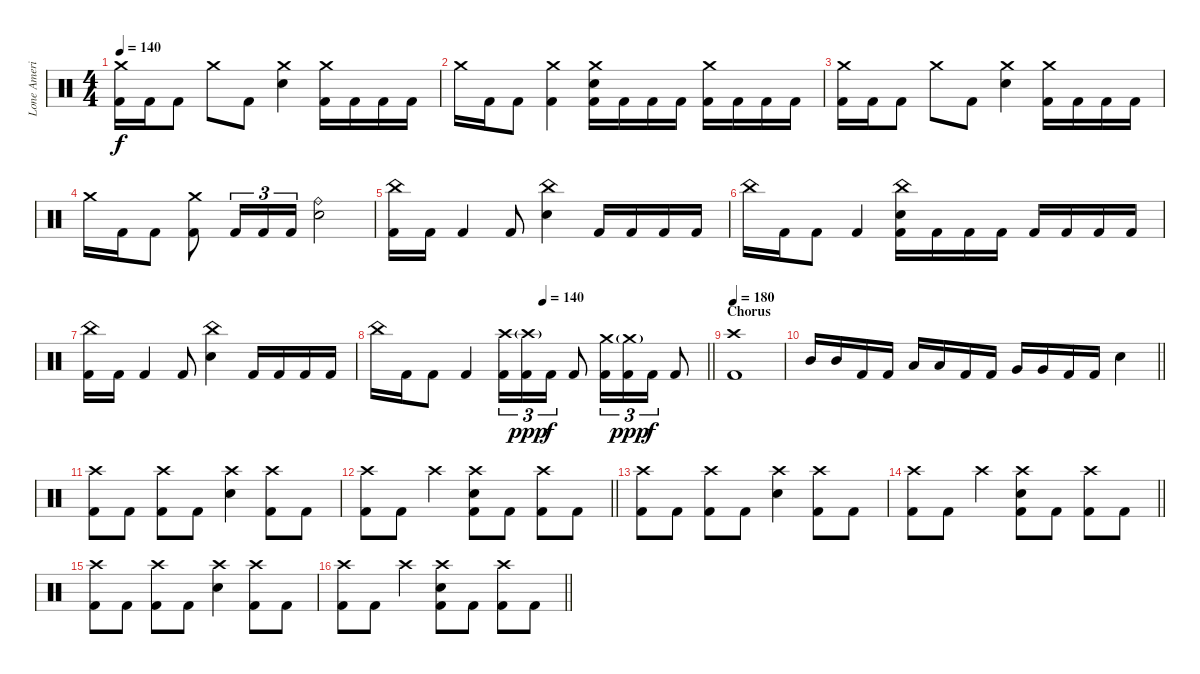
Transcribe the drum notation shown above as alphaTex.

\track ("Lone America" "Lone Ameri") {instrument percussion}
\staff {score}
\articulation defaults
\ts (4 4)
\tempo 140
\clef neutral
\ks c
("Crash medium (hit)" "Kick (hit) 2").16{dy f} "Kick (hit) 2".16 "Kick (hit) 2".8 "Crash medium (hit)".8 "Kick (hit) 2".8 ("Crash medium (hit)" "Electric Snare (hit)").4 ("Crash medium (hit)" "Kick (hit) 2").16 "Kick (hit) 2".16 "Kick (hit) 2".16 "Kick (hit) 2".16 |
"Crash medium (hit)".16 "Kick (hit) 2".16 "Kick (hit) 2".8 ("Crash medium (hit)" "Kick (hit) 2").4 ("Crash medium (hit)" "Electric Snare (hit)" "Kick (hit) 2").16 "Kick (hit) 2".16 "Kick (hit) 2".16 "Kick (hit) 2".16 ("Crash medium (hit)" "Kick (hit) 2").16 "Kick (hit) 2".16 "Kick (hit) 2".16 "Kick (hit) 2".16 |
("Crash medium (hit)" "Kick (hit) 2").16 "Kick (hit) 2".16 "Kick (hit) 2".8 "Crash medium (hit)".8 "Kick (hit) 2".8 ("Crash medium (hit)" "Electric Snare (hit)").4 ("Crash medium (hit)" "Kick (hit) 2").16 "Kick (hit) 2".16 "Kick (hit) 2".16 "Kick (hit) 2".16 |
"Crash medium (hit)".16 "Kick (hit) 2".16 "Kick (hit) 2".8 ("Crash medium (hit)" "Kick (hit) 2").8 "Kick (hit) 2".16{tu (3 2)} "Kick (hit) 2".16{tu (3 2)} "Kick (hit) 2".16{tu (3 2)} ("Ride (bell)" "Electric Snare (hit)").2 |
("China (hit)" "Kick (hit) 2").16 "Kick (hit) 2".16 "Kick (hit) 2".4 "Kick (hit) 2".8 ("China (hit)" "Electric Snare (hit)").4 "Kick (hit) 2".16 "Kick (hit) 2".16 "Kick (hit) 2".16 "Kick (hit) 2".16 |
"China (hit)".16 "Kick (hit) 2".16 "Kick (hit) 2".8 "Kick (hit) 2".4 ("China (hit)" "Electric Snare (hit)" "Kick (hit) 2").16 "Kick (hit) 2".16 "Kick (hit) 2".16 "Kick (hit) 2".16 "Kick (hit) 2".16 "Kick (hit) 2".16 "Kick (hit) 2".16 "Kick (hit) 2".16 |
("China (hit)" "Kick (hit) 2").16 "Kick (hit) 2".16 "Kick (hit) 2".4 "Kick (hit) 2".8 ("China (hit)" "Electric Snare (hit)").4 "Kick (hit) 2".16 "Kick (hit) 2".16 "Kick (hit) 2".16 "Kick (hit) 2".16 |
\tempo (140 0.5)
\barLineRight lightlight "China (hit)".16 "Kick (hit) 2".16 "Kick (hit) 2".8 "Kick (hit) 2".4
("Crash high (hit)" "Kick (hit) 2").16{tu (3 2) balance 0} ("Crash high (hit)"{g} "Kick (hit) 2").16{tu (3 2) dy ppp} "Kick (hit) 2".16{tu (3 2) dy f} "Kick (hit) 2".8 ("Crash medium (hit)" "Kick (hit) 2").16{tu (3 2) balance 16} ("Crash medium (hit)"{g} "Kick (hit) 2").16{tu (3 2) dy ppp} "Kick (hit) 2".16{tu (3 2) dy f} "Kick (hit) 2".8 |
\section ("" "Chorus")
\tempo 180
("Crash high (hit)" "Kick (hit) 2").1{balance 8} |
\barLineRight lightlight "Mid Tom (hit)".16 "Mid Tom (hit)".16 "Kick (hit) 2".16 "Kick (hit) 2".16 "Low Tom (hit)".16 "Low Tom (hit)".16 "Kick (hit) 2".16 "Kick (hit) 2".16 "Very Low Tom (hit)".16 "Very Low Tom (hit)".16 "Kick (hit) 2".16 "Kick (hit) 2".16 "Electric Snare (hit)".4
|
("Crash high (hit)" "Kick (hit) 2").8 "Kick (hit) 2".8 ("Crash high (hit)" "Kick (hit) 2").8 "Kick (hit) 2".8 ("Crash high (hit)" "Electric Snare (hit)").4 ("Crash high (hit)" "Kick (hit) 2").8 "Kick (hit) 2".8 |
\barLineRight lightlight
("Crash high (hit)" "Kick (hit) 2").8 "Kick (hit) 2".8 "Crash high (hit)".4 ("Crash high (hit)" "Electric Snare (hit)" "Kick (hit) 2").8 "Kick (hit) 2".8 ("Crash high (hit)" "Kick (hit) 2").8 "Kick (hit) 2".8 |
("Crash high (hit)" "Kick (hit) 2").8 "Kick (hit) 2".8 ("Crash high (hit)" "Kick (hit) 2").8 "Kick (hit) 2".8 ("Crash high (hit)" "Electric Snare (hit)").4 ("Crash high (hit)" "Kick (hit) 2").8 "Kick (hit) 2".8 |
\barLineRight lightlight
("Crash high (hit)" "Kick (hit) 2").8 "Kick (hit) 2".8 "Crash high (hit)".4 ("Crash high (hit)" "Electric Snare (hit)" "Kick (hit) 2").8 "Kick (hit) 2".8 ("Crash high (hit)" "Kick (hit) 2").8 "Kick (hit) 2".8 |
("Crash high (hit)" "Kick (hit) 2").8 "Kick (hit) 2".8 ("Crash high (hit)" "Kick (hit) 2").8 "Kick (hit) 2".8 ("Crash high (hit)" "Electric Snare (hit)").4 ("Crash high (hit)" "Kick (hit) 2").8 "Kick (hit) 2".8 |
\barLineRight lightlight
("Crash high (hit)" "Kick (hit) 2").8 "Kick (hit) 2".8 "Crash high (hit)".4 ("Crash high (hit)" "Electric Snare (hit)" "Kick (hit) 2").8 "Kick (hit) 2".8 ("Crash high (hit)" "Kick (hit) 2").8 "Kick (hit) 2".8
